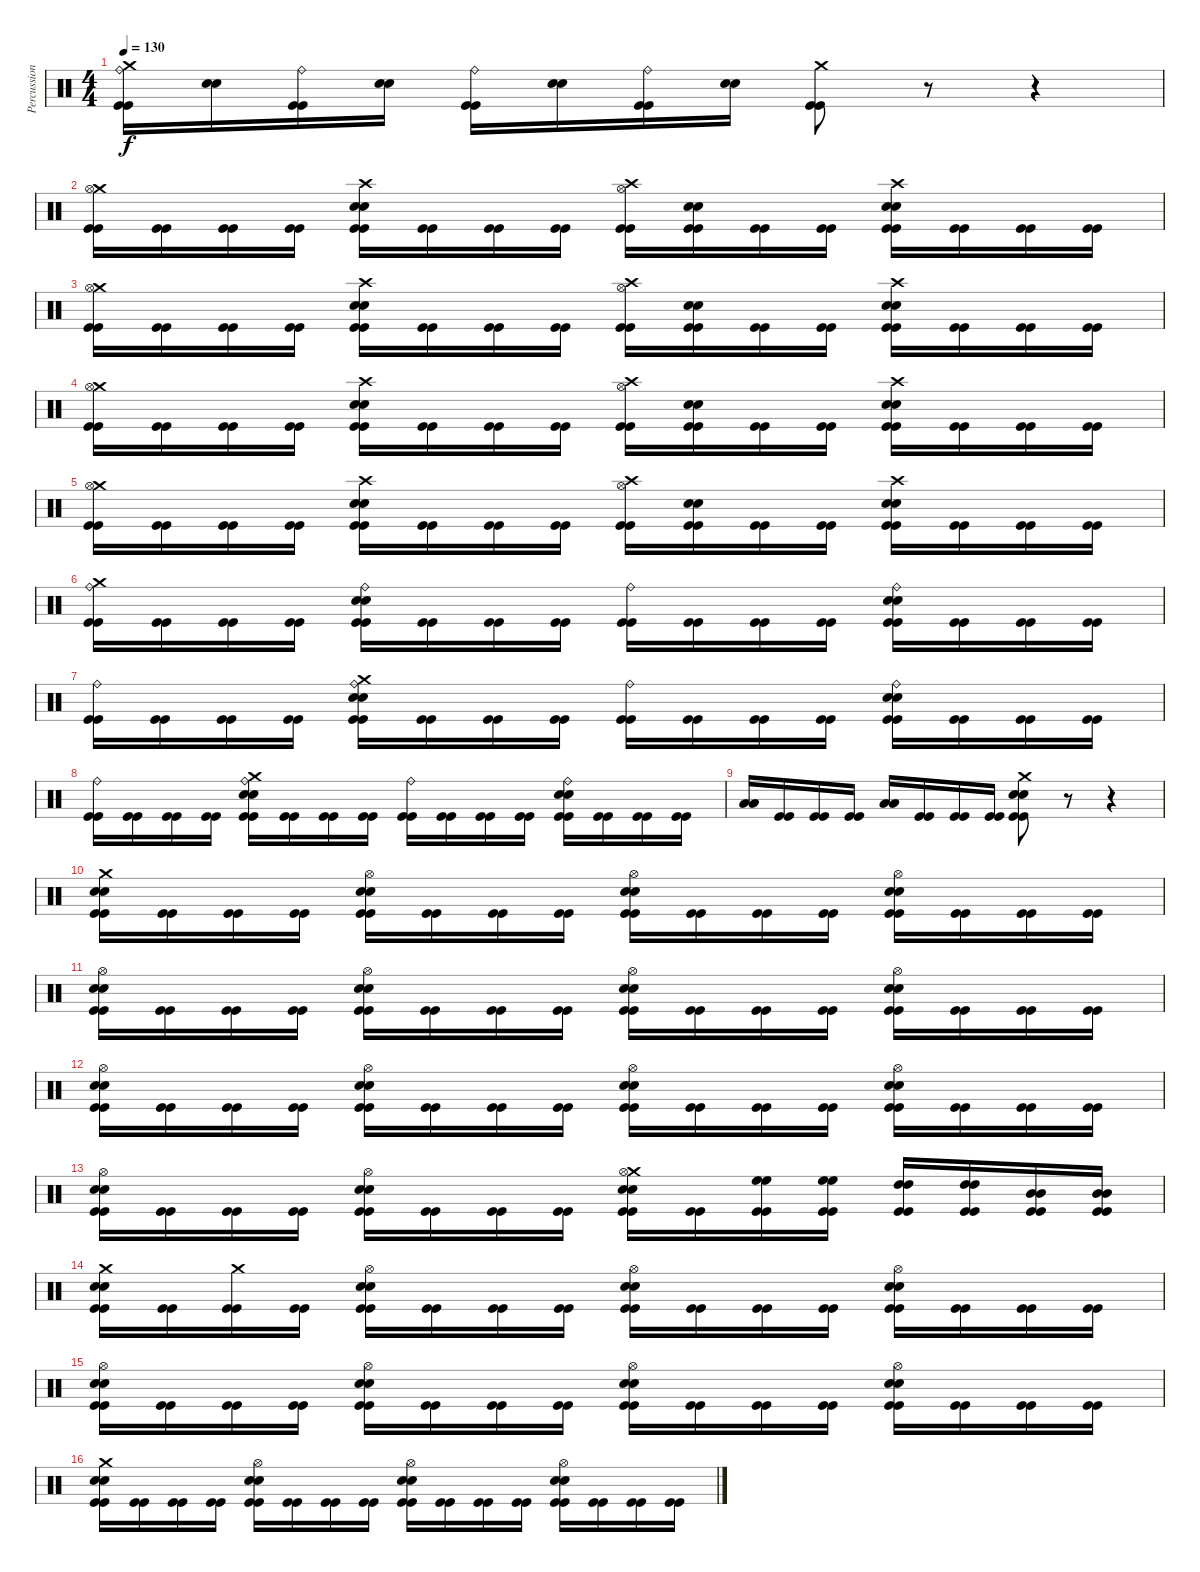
\track ("Percussion" "Percussion") {instrument percussion}
\staff {score}
\articulation defaults
\ts (4 4)
\tempo 130
\clef neutral
\ks c
("Crash medium (hit)" "Ride (bell)" "Kick (hit)" "Kick (hit)").16{dy f} ("Snare (hit) 2" "Snare (hit) 2").16 ("Ride (bell)" "Kick (hit)" "Kick (hit)").16 ("Snare (hit) 2" "Snare (hit) 2").16 ("Ride (bell)" "Kick (hit)" "Kick (hit)").16 ("Snare (hit) 2" "Snare (hit) 2").16 ("Ride (bell)" "Kick (hit)" "Kick (hit)").16 ("Snare (hit) 2" "Snare (hit) 2").16 ("Crash medium (hit)" "Kick (hit)" "Kick (hit)").8 r.8 r.4 |
("Crash medium (hit)" "Hi-Hat (open)" "Kick (hit)" "Kick (hit)").16 ("Kick (hit)" "Kick (hit)").16 ("Kick (hit)" "Kick (hit)").16 ("Kick (hit)" "Kick (hit)").16 ("Crash high (hit)" "Snare (hit) 2" "Snare (hit) 2" "Kick (hit)" "Kick (hit)").16 ("Kick (hit)" "Kick (hit)").16 ("Kick (hit)" "Kick (hit)").16 ("Kick (hit)" "Kick (hit)").16 ("Crash high (hit)" "Hi-Hat (open)" "Kick (hit)" "Kick (hit)").16 ("Snare (hit) 2" "Snare (hit) 2" "Kick (hit)" "Kick (hit)").16 ("Kick (hit)" "Kick (hit)").16 ("Kick (hit)" "Kick (hit)").16 ("Crash high (hit)" "Snare (hit) 2" "Snare (hit) 2" "Kick (hit)" "Kick (hit)").16 ("Kick (hit)" "Kick (hit)").16 ("Kick (hit)" "Kick (hit)").16 ("Kick (hit)" "Kick (hit)").16 |
("Crash medium (hit)" "Hi-Hat (open)" "Kick (hit)" "Kick (hit)").16 ("Kick (hit)" "Kick (hit)").16 ("Kick (hit)" "Kick (hit)").16 ("Kick (hit)" "Kick (hit)").16 ("Crash high (hit)" "Snare (hit) 2" "Snare (hit) 2" "Kick (hit)" "Kick (hit)").16 ("Kick (hit)" "Kick (hit)").16 ("Kick (hit)" "Kick (hit)").16 ("Kick (hit)" "Kick (hit)").16 ("Crash high (hit)" "Hi-Hat (open)" "Kick (hit)" "Kick (hit)").16 ("Snare (hit) 2" "Snare (hit) 2" "Kick (hit)" "Kick (hit)").16 ("Kick (hit)" "Kick (hit)").16 ("Kick (hit)" "Kick (hit)").16 ("Crash high (hit)" "Snare (hit) 2" "Snare (hit) 2" "Kick (hit)" "Kick (hit)").16 ("Kick (hit)" "Kick (hit)").16 ("Kick (hit)" "Kick (hit)").16 ("Kick (hit)" "Kick (hit)").16 |
("Crash medium (hit)" "Hi-Hat (open)" "Kick (hit)" "Kick (hit)").16 ("Kick (hit)" "Kick (hit)").16 ("Kick (hit)" "Kick (hit)").16 ("Kick (hit)" "Kick (hit)").16 ("Crash high (hit)" "Snare (hit) 2" "Snare (hit) 2" "Kick (hit)" "Kick (hit)").16 ("Kick (hit)" "Kick (hit)").16 ("Kick (hit)" "Kick (hit)").16 ("Kick (hit)" "Kick (hit)").16 ("Crash high (hit)" "Hi-Hat (open)" "Kick (hit)" "Kick (hit)").16 ("Snare (hit) 2" "Snare (hit) 2" "Kick (hit)" "Kick (hit)").16 ("Kick (hit)" "Kick (hit)").16 ("Kick (hit)" "Kick (hit)").16 ("Crash high (hit)" "Snare (hit) 2" "Snare (hit) 2" "Kick (hit)" "Kick (hit)").16 ("Kick (hit)" "Kick (hit)").16 ("Kick (hit)" "Kick (hit)").16 ("Kick (hit)" "Kick (hit)").16 |
("Crash medium (hit)" "Hi-Hat (open)" "Kick (hit)" "Kick (hit)").16 ("Kick (hit)" "Kick (hit)").16 ("Kick (hit)" "Kick (hit)").16 ("Kick (hit)" "Kick (hit)").16 ("Crash high (hit)" "Snare (hit) 2" "Snare (hit) 2" "Kick (hit)" "Kick (hit)").16 ("Kick (hit)" "Kick (hit)").16 ("Kick (hit)" "Kick (hit)").16 ("Kick (hit)" "Kick (hit)").16 ("Crash high (hit)" "Hi-Hat (open)" "Kick (hit)" "Kick (hit)").16 ("Snare (hit) 2" "Snare (hit) 2" "Kick (hit)" "Kick (hit)").16 ("Kick (hit)" "Kick (hit)").16 ("Kick (hit)" "Kick (hit)").16 ("Crash high (hit)" "Snare (hit) 2" "Snare (hit) 2" "Kick (hit)" "Kick (hit)").16 ("Kick (hit)" "Kick (hit)").16 ("Kick (hit)" "Kick (hit)").16 ("Kick (hit)" "Kick (hit)").16 |
("Crash medium (hit)" "Ride (bell)" "Kick (hit)" "Kick (hit)").16 ("Kick (hit)" "Kick (hit)").16 ("Kick (hit)" "Kick (hit)").16 ("Kick (hit)" "Kick (hit)").16 ("Snare (hit) 2" "Snare (hit) 2" "Ride (bell)" "Kick (hit)" "Kick (hit)").16 ("Kick (hit)" "Kick (hit)").16 ("Kick (hit)" "Kick (hit)").16 ("Kick (hit)" "Kick (hit)").16 ("Ride (bell)" "Kick (hit)" "Kick (hit)").16 ("Kick (hit)" "Kick (hit)").16 ("Kick (hit)" "Kick (hit)").16 ("Kick (hit)" "Kick (hit)").16 ("Snare (hit) 2" "Snare (hit) 2" "Ride (bell)" "Kick (hit)" "Kick (hit)").16 ("Kick (hit)" "Kick (hit)").16 ("Kick (hit)" "Kick (hit)").16 ("Kick (hit)" "Kick (hit)").16 |
("Ride (bell)" "Kick (hit)" "Kick (hit)").16 ("Kick (hit)" "Kick (hit)").16 ("Kick (hit)" "Kick (hit)").16 ("Kick (hit)" "Kick (hit)").16 ("Crash medium (hit)" "Snare (hit) 2" "Snare (hit) 2" "Ride (bell)" "Kick (hit)" "Kick (hit)").16 ("Kick (hit)" "Kick (hit)").16 ("Kick (hit)" "Kick (hit)").16 ("Kick (hit)" "Kick (hit)").16 ("Ride (bell)" "Kick (hit)" "Kick (hit)").16 ("Kick (hit)" "Kick (hit)").16 ("Kick (hit)" "Kick (hit)").16 ("Kick (hit)" "Kick (hit)").16 ("Snare (hit) 2" "Snare (hit) 2" "Ride (bell)" "Kick (hit)" "Kick (hit)").16 ("Kick (hit)" "Kick (hit)").16 ("Kick (hit)" "Kick (hit)").16 ("Kick (hit)" "Kick (hit)").16 |
("Ride (bell)" "Kick (hit)" "Kick (hit)").16 ("Kick (hit)" "Kick (hit)").16 ("Kick (hit)" "Kick (hit)").16 ("Kick (hit)" "Kick (hit)").16 ("Crash medium (hit)" "Snare (hit) 2" "Snare (hit) 2" "Ride (bell)" "Kick (hit)" "Kick (hit)").16 ("Kick (hit)" "Kick (hit)").16 ("Kick (hit)" "Kick (hit)").16 ("Kick (hit)" "Kick (hit)").16 ("Ride (bell)" "Kick (hit)" "Kick (hit)").16 ("Kick (hit)" "Kick (hit)").16 ("Kick (hit)" "Kick (hit)").16 ("Kick (hit)" "Kick (hit)").16 ("Snare (hit) 2" "Snare (hit) 2" "Ride (bell)" "Kick (hit)" "Kick (hit)").16 ("Kick (hit)" "Kick (hit)").16 ("Kick (hit)" "Kick (hit)").16 ("Kick (hit)" "Kick (hit)").16 |
("Low Tom (hit)" "Low Tom (hit)").16 ("Kick (hit)" "Kick (hit)").16 ("Kick (hit)" "Kick (hit)").16 ("Kick (hit)" "Kick (hit)").16 ("Low Tom (hit)" "Low Tom (hit)").16 ("Kick (hit)" "Kick (hit)").16 ("Kick (hit)" "Kick (hit)").16 ("Kick (hit)" "Kick (hit)").16 ("Crash medium (hit)" "Snare (hit) 2" "Snare (hit) 2" "Kick (hit)" "Kick (hit)").8 r.8 r.4 |
("Crash medium (hit)" "Snare (hit) 2" "Snare (hit) 2" "Kick (hit)" "Kick (hit)").16 ("Kick (hit)" "Kick (hit)").16 ("Kick (hit)" "Kick (hit)").16 ("Kick (hit)" "Kick (hit)").16 ("Snare (hit) 2" "Snare (hit) 2" "Hi-Hat (open)" "Kick (hit)" "Kick (hit)").16 ("Kick (hit)" "Kick (hit)").16 ("Kick (hit)" "Kick (hit)").16 ("Kick (hit)" "Kick (hit)").16 ("Snare (hit) 2" "Snare (hit) 2" "Hi-Hat (open)" "Kick (hit)" "Kick (hit)").16 ("Kick (hit)" "Kick (hit)").16 ("Kick (hit)" "Kick (hit)").16 ("Kick (hit)" "Kick (hit)").16 ("Snare (hit) 2" "Snare (hit) 2" "Hi-Hat (open)" "Kick (hit)" "Kick (hit)").16 ("Kick (hit)" "Kick (hit)").16 ("Kick (hit)" "Kick (hit)").16 ("Kick (hit)" "Kick (hit)").16 |
("Snare (hit) 2" "Snare (hit) 2" "Hi-Hat (open)" "Kick (hit)" "Kick (hit)").16 ("Kick (hit)" "Kick (hit)").16 ("Kick (hit)" "Kick (hit)").16 ("Kick (hit)" "Kick (hit)").16 ("Snare (hit) 2" "Snare (hit) 2" "Hi-Hat (open)" "Kick (hit)" "Kick (hit)").16 ("Kick (hit)" "Kick (hit)").16 ("Kick (hit)" "Kick (hit)").16 ("Kick (hit)" "Kick (hit)").16 ("Snare (hit) 2" "Snare (hit) 2" "Hi-Hat (open)" "Kick (hit)" "Kick (hit)").16 ("Kick (hit)" "Kick (hit)").16 ("Kick (hit)" "Kick (hit)").16 ("Kick (hit)" "Kick (hit)").16 ("Snare (hit) 2" "Snare (hit) 2" "Hi-Hat (open)" "Kick (hit)" "Kick (hit)").16 ("Kick (hit)" "Kick (hit)").16 ("Kick (hit)" "Kick (hit)").16 ("Kick (hit)" "Kick (hit)").16 |
("Snare (hit) 2" "Snare (hit) 2" "Hi-Hat (open)" "Kick (hit)" "Kick (hit)").16 ("Kick (hit)" "Kick (hit)").16 ("Kick (hit)" "Kick (hit)").16 ("Kick (hit)" "Kick (hit)").16 ("Snare (hit) 2" "Snare (hit) 2" "Hi-Hat (open)" "Kick (hit)" "Kick (hit)").16 ("Kick (hit)" "Kick (hit)").16 ("Kick (hit)" "Kick (hit)").16 ("Kick (hit)" "Kick (hit)").16 ("Snare (hit) 2" "Snare (hit) 2" "Hi-Hat (open)" "Kick (hit)" "Kick (hit)").16 ("Kick (hit)" "Kick (hit)").16 ("Kick (hit)" "Kick (hit)").16 ("Kick (hit)" "Kick (hit)").16 ("Snare (hit) 2" "Snare (hit) 2" "Hi-Hat (open)" "Kick (hit)" "Kick (hit)").16 ("Kick (hit)" "Kick (hit)").16 ("Kick (hit)" "Kick (hit)").16 ("Kick (hit)" "Kick (hit)").16 |
("Snare (hit) 2" "Snare (hit) 2" "Hi-Hat (open)" "Kick (hit)" "Kick (hit)").16 ("Kick (hit)" "Kick (hit)").16 ("Kick (hit)" "Kick (hit)").16 ("Kick (hit)" "Kick (hit)").16 ("Snare (hit) 2" "Snare (hit) 2" "Hi-Hat (open)" "Kick (hit)" "Kick (hit)").16 ("Kick (hit)" "Kick (hit)").16 ("Kick (hit)" "Kick (hit)").16 ("Kick (hit)" "Kick (hit)").16 ("Crash medium (hit)" "Snare (hit) 2" "Snare (hit) 2" "Hi-Hat (open)" "Kick (hit)" "Kick (hit)").16 ("Kick (hit)" "Kick (hit)").16 ("High Floor Tom (hit)" "High Floor Tom (hit)" "Kick (hit)" "Kick (hit)").16 ("High Floor Tom (hit)" "High Floor Tom (hit)" "Kick (hit)" "Kick (hit)").16 ("High Tom (hit)" "High Tom (hit)" "Kick (hit)" "Kick (hit)").16 ("High Tom (hit)" "High Tom (hit)" "Kick (hit)" "Kick (hit)").16 ("Mid Tom (hit)" "Mid Tom (hit)" "Kick (hit)" "Kick (hit)").16 ("Mid Tom (hit)" "Mid Tom (hit)" "Kick (hit)" "Kick (hit)").16 |
("Crash medium (hit)" "Snare (hit) 2" "Snare (hit) 2" "Kick (hit)" "Kick (hit)").16 ("Kick (hit)" "Kick (hit)").16 ("Crash medium (hit)" "Kick (hit)" "Kick (hit)").16 ("Kick (hit)" "Kick (hit)").16 ("Snare (hit) 2" "Snare (hit) 2" "Hi-Hat (open)" "Kick (hit)" "Kick (hit)").16 ("Kick (hit)" "Kick (hit)").16 ("Kick (hit)" "Kick (hit)").16 ("Kick (hit)" "Kick (hit)").16 ("Snare (hit) 2" "Snare (hit) 2" "Hi-Hat (open)" "Kick (hit)" "Kick (hit)").16 ("Kick (hit)" "Kick (hit)").16 ("Kick (hit)" "Kick (hit)").16 ("Kick (hit)" "Kick (hit)").16 ("Snare (hit) 2" "Snare (hit) 2" "Hi-Hat (open)" "Kick (hit)" "Kick (hit)").16 ("Kick (hit)" "Kick (hit)").16 ("Kick (hit)" "Kick (hit)").16 ("Kick (hit)" "Kick (hit)").16 |
("Snare (hit) 2" "Snare (hit) 2" "Hi-Hat (open)" "Kick (hit)" "Kick (hit)").16 ("Kick (hit)" "Kick (hit)").16 ("Kick (hit)" "Kick (hit)").16 ("Kick (hit)" "Kick (hit)").16 ("Snare (hit) 2" "Snare (hit) 2" "Hi-Hat (open)" "Kick (hit)" "Kick (hit)").16 ("Kick (hit)" "Kick (hit)").16 ("Kick (hit)" "Kick (hit)").16 ("Kick (hit)" "Kick (hit)").16 ("Snare (hit) 2" "Snare (hit) 2" "Hi-Hat (open)" "Kick (hit)" "Kick (hit)").16 ("Kick (hit)" "Kick (hit)").16 ("Kick (hit)" "Kick (hit)").16 ("Kick (hit)" "Kick (hit)").16 ("Snare (hit) 2" "Snare (hit) 2" "Hi-Hat (open)" "Kick (hit)" "Kick (hit)").16 ("Kick (hit)" "Kick (hit)").16 ("Kick (hit)" "Kick (hit)").16 ("Kick (hit)" "Kick (hit)").16 |
("Crash medium (hit)" "Snare (hit) 2" "Snare (hit) 2" "Kick (hit)" "Kick (hit)").16 ("Kick (hit)" "Kick (hit)").16 ("Kick (hit)" "Kick (hit)").16 ("Kick (hit)" "Kick (hit)").16 ("Snare (hit) 2" "Snare (hit) 2" "Hi-Hat (open)" "Kick (hit)" "Kick (hit)").16 ("Kick (hit)" "Kick (hit)").16 ("Kick (hit)" "Kick (hit)").16 ("Kick (hit)" "Kick (hit)").16 ("Snare (hit) 2" "Snare (hit) 2" "Hi-Hat (open)" "Kick (hit)" "Kick (hit)").16 ("Kick (hit)" "Kick (hit)").16 ("Kick (hit)" "Kick (hit)").16 ("Kick (hit)" "Kick (hit)").16 ("Snare (hit) 2" "Snare (hit) 2" "Hi-Hat (open)" "Kick (hit)" "Kick (hit)").16 ("Kick (hit)" "Kick (hit)").16 ("Kick (hit)" "Kick (hit)").16 ("Kick (hit)" "Kick (hit)").16
